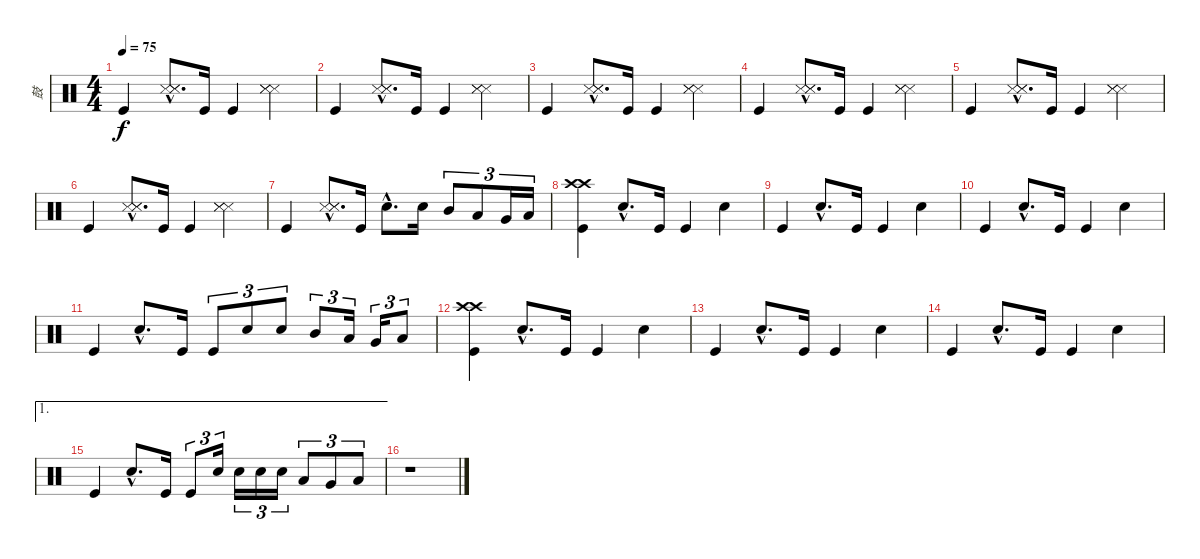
\track ("鼓" "鼓") {instrument percussion}
\staff {score}
\articulation defaults
\ts (4 4)
\tempo 75
\clef neutral
\ks c "Kick (hit)".4{dy f}
("Snare (side stick) 3"{hac} "Snare (side stick) 3"{hac} "Snare (side stick) 3"{hac}).8{d} "Kick (hit)".16 "Kick (hit)".4 ("Snare (side stick) 3" "Snare (side stick) 3" "Snare (side stick) 3").4 |
"Kick (hit)".4 ("Snare (side stick) 3"{hac} "Snare (side stick) 3"{hac} "Snare (side stick) 3"{hac}).8{d} "Kick (hit)".16 "Kick (hit)".4 ("Snare (side stick) 3" "Snare (side stick) 3" "Snare (side stick) 3").4 |
"Kick (hit)".4 ("Snare (side stick) 3"{hac} "Snare (side stick) 3"{hac} "Snare (side stick) 3"{hac}).8{d} "Kick (hit)".16 "Kick (hit)".4 ("Snare (side stick) 3" "Snare (side stick) 3" "Snare (side stick) 3").4 |
"Kick (hit)".4 ("Snare (side stick) 3"{hac} "Snare (side stick) 3"{hac} "Snare (side stick) 3"{hac}).8{d} "Kick (hit)".16 "Kick (hit)".4 ("Snare (side stick) 3" "Snare (side stick) 3" "Snare (side stick) 3").4 |
"Kick (hit)".4 ("Snare (side stick) 3"{hac} "Snare (side stick) 3"{hac} "Snare (side stick) 3"{hac}).8{d} "Kick (hit)".16 "Kick (hit)".4 ("Snare (side stick) 3" "Snare (side stick) 3" "Snare (side stick) 3").4 |
"Kick (hit)".4 ("Snare (side stick) 3"{hac} "Snare (side stick) 3"{hac} "Snare (side stick) 3"{hac}).8{d} "Kick (hit)".16 "Kick (hit)".4 ("Snare (side stick) 3" "Snare (side stick) 3" "Snare (side stick) 3").4 |
"Kick (hit)".4 ("Snare (side stick) 3"{hac} "Snare (side stick) 3"{hac} "Snare (side stick) 3"{hac}).8{d} "Kick (hit)".16 "Snare (hit) 2"{hac}.8{d} "Snare (hit) 2".16 "Mid Tom (hit)".8{tu (3 2)} "Low Tom (hit)".8{tu (3 2)} "Very Low Tom (hit)".16{tu (3 2)} "Low Floor Tom (hit)".16{tu (3 2)} |
("Crash high (hit)" "Crash high (hit)" "Kick (hit)").4 "Snare (hit) 2"{hac}.8{d} "Kick (hit)".16 "Kick (hit)".4 "Snare (hit) 2".4 |
"Kick (hit)".4 "Snare (hit) 2"{hac}.8{d} "Kick (hit)".16 "Kick (hit)".4 "Snare (hit) 2".4 |
"Kick (hit)".4 "Snare (hit) 2"{hac}.8{d} "Kick (hit)".16 "Kick (hit)".4 "Snare (hit) 2".4 |
"Kick (hit)".4 "Snare (hit) 2"{hac}.8{d} "Kick (hit)".16 "Kick (hit)".8{tu (3 2)} "Snare (hit) 2".8{tu (3 2)} "Snare (hit) 2".8{tu (3 2)} "Mid Tom (hit)".8{tu (3 2)} "Low Tom (hit)".16{tu (3 2)} "Very Low Tom (hit)".16{tu (3 2)} "Low Floor Tom (hit)".8{tu (3 2)} |
("Crash high (hit)" "Crash high (hit)" "Kick (hit)").4 "Snare (hit) 2"{hac}.8{d} "Kick (hit)".16 "Kick (hit)".4 "Snare (hit) 2".4 |
"Kick (hit)".4 "Snare (hit) 2"{hac}.8{d} "Kick (hit)".16 "Kick (hit)".4 "Snare (hit) 2".4 |
"Kick (hit)".4 "Snare (hit) 2"{hac}.8{d} "Kick (hit)".16 "Kick (hit)".4 "Snare (hit) 2".4 |
\ae 1 "Kick (hit)".4 "Snare (hit) 2"{hac}.8{d} "Kick (hit)".16 "Kick (hit)".8{tu (3 2)} "Snare (hit) 2".16{tu (3 2)} "Snare (hit) 2".16{tu (3 2)} "Snare (hit) 2".16{tu (3 2)} "Snare (hit) 2".16{tu (3 2)} "Low Tom (hit)".8{tu (3 2)} "Very Low Tom (hit)".8{tu (3 2)} "Low Floor Tom (hit)".8{tu (3 2)}
|
r.1
